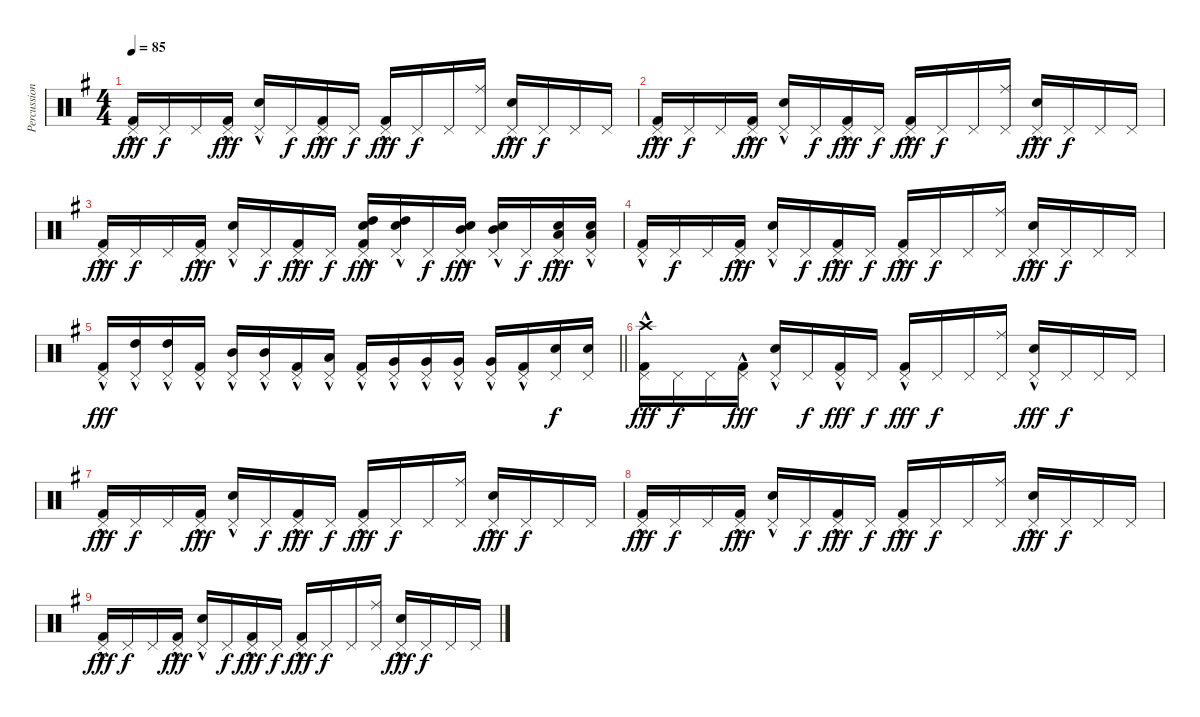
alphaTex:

\track ("Percussion" "Percussion") {instrument percussion}
\staff {score}
\articulation defaults
\ts (4 4)
\tempo 85
\clef neutral
\ks g
("Pedal Hi-Hat (hit)" "Kick (hit) 2"{hac}).16{dy fff} "Pedal Hi-Hat (hit)".16{dy f} "Pedal Hi-Hat (hit)".16 ("Pedal Hi-Hat (hit)" "Kick (hit) 2"{hac}).16{dy fff} ("Pedal Hi-Hat (hit)" "Snare (hit) 2"{hac}).16 "Pedal Hi-Hat (hit)".16{dy f} ("Pedal Hi-Hat (hit)" "Kick (hit) 2"{hac}).16{dy fff} "Pedal Hi-Hat (hit)".16{dy f} ("Pedal Hi-Hat (hit)" "Kick (hit) 2"{hac}).16{dy fff} "Pedal Hi-Hat (hit)".16{dy f} "Pedal Hi-Hat (hit)".16 ("Pedal Hi-Hat (hit)" "Ride (middle)").16 ("Pedal Hi-Hat (hit)" "Snare (hit) 2"{hac}).16{dy fff} "Pedal Hi-Hat (hit)".16{dy f} "Pedal Hi-Hat (hit)".16 "Pedal Hi-Hat (hit)".16 |
("Pedal Hi-Hat (hit)" "Kick (hit) 2"{hac}).16{dy fff} "Pedal Hi-Hat (hit)".16{dy f} "Pedal Hi-Hat (hit)".16 ("Pedal Hi-Hat (hit)" "Kick (hit) 2"{hac}).16{dy fff} ("Pedal Hi-Hat (hit)" "Snare (hit) 2"{hac}).16 "Pedal Hi-Hat (hit)".16{dy f} ("Pedal Hi-Hat (hit)" "Kick (hit) 2"{hac}).16{dy fff} "Pedal Hi-Hat (hit)".16{dy f} ("Pedal Hi-Hat (hit)" "Kick (hit) 2"{hac}).16{dy fff} "Pedal Hi-Hat (hit)".16{dy f} "Pedal Hi-Hat (hit)".16 ("Pedal Hi-Hat (hit)" "Ride (middle)").16 ("Pedal Hi-Hat (hit)" "Snare (hit) 2"{hac}).16{dy fff} "Pedal Hi-Hat (hit)".16{dy f} "Pedal Hi-Hat (hit)".16 "Pedal Hi-Hat (hit)".16 |
("Pedal Hi-Hat (hit)" "Kick (hit) 2"{hac}).16{dy fff} "Pedal Hi-Hat (hit)".16{dy f} "Pedal Hi-Hat (hit)".16 ("Pedal Hi-Hat (hit)" "Kick (hit) 2"{hac}).16{dy fff} ("Pedal Hi-Hat (hit)" "Snare (hit) 2"{hac}).16 "Pedal Hi-Hat (hit)".16{dy f} ("Pedal Hi-Hat (hit)" "Kick (hit) 2"{hac}).16{dy fff} "Pedal Hi-Hat (hit)".16{dy f} ("Pedal Hi-Hat (hit)" "High Tom (hit)"{hac} "Electric Snare (hit)" "Kick (hit) 2"{hac}).16{dy fff} ("Pedal Hi-Hat (hit)" "High Tom (hit)"{hac} "Electric Snare (hit)").16 "Pedal Hi-Hat (hit)".16{dy f} ("Pedal Hi-Hat (hit)" "Mid Tom (hit)"{hac} "Electric Snare (hit)").16{dy fff} ("Pedal Hi-Hat (hit)" "Mid Tom (hit)"{hac} "Electric Snare (hit)").16 "Pedal Hi-Hat (hit)".16{dy f} ("Pedal Hi-Hat (hit)" "Low Tom (hit)"{hac} "Electric Snare (hit)").16{dy fff} ("Pedal Hi-Hat (hit)" "Low Tom (hit)"{hac} "Electric Snare (hit)").16 |
("Pedal Hi-Hat (hit)" "Kick (hit) 2"{hac}).16 "Pedal Hi-Hat (hit)".16{dy f} "Pedal Hi-Hat (hit)".16 ("Pedal Hi-Hat (hit)" "Kick (hit) 2"{hac}).16{dy fff} ("Pedal Hi-Hat (hit)" "Snare (hit) 2"{hac}).16 "Pedal Hi-Hat (hit)".16{dy f} ("Pedal Hi-Hat (hit)" "Kick (hit) 2"{hac}).16{dy fff} "Pedal Hi-Hat (hit)".16{dy f} ("Pedal Hi-Hat (hit)" "Kick (hit) 2"{hac}).16{dy fff} "Pedal Hi-Hat (hit)".16{dy f} "Pedal Hi-Hat (hit)".16 ("Pedal Hi-Hat (hit)" "Ride (middle)").16 ("Pedal Hi-Hat (hit)" "Snare (hit) 2"{hac}).16{dy fff} "Pedal Hi-Hat (hit)".16{dy f} "Pedal Hi-Hat (hit)".16 "Pedal Hi-Hat (hit)".16 |
\barLineRight lightlight
("Pedal Hi-Hat (hit)" "Kick (hit) 2"{hac}).16{dy fff} ("Pedal Hi-Hat (hit)" "High Tom (hit)"{hac}).16 ("Pedal Hi-Hat (hit)" "High Tom (hit)"{hac}).16 ("Pedal Hi-Hat (hit)" "Kick (hit) 2"{hac}).16 ("Pedal Hi-Hat (hit)" "Mid Tom (hit)"{hac}).16 ("Pedal Hi-Hat (hit)" "Mid Tom (hit)"{hac}).16 ("Pedal Hi-Hat (hit)" "Kick (hit) 2"{hac}).16 ("Pedal Hi-Hat (hit)" "Low Tom (hit)"{hac}).16 ("Pedal Hi-Hat (hit)" "Kick (hit) 2"{hac}).16 ("Pedal Hi-Hat (hit)" "Very Low Tom (hit)"{hac}).16 ("Pedal Hi-Hat (hit)" "Very Low Tom (hit)"{hac}).16 ("Pedal Hi-Hat (hit)" "Very Low Tom (hit)"{hac}).16 ("Pedal Hi-Hat (hit)" "Very Low Tom (hit)"{hac}).16 ("Pedal Hi-Hat (hit)" "Kick (hit) 2"{hac}).16 ("Pedal Hi-Hat (hit)" "Snare (hit) 2").16{dy f} ("Pedal Hi-Hat (hit)" "Snare (hit) 2").16 |
("Pedal Hi-Hat (hit)" "Crash high (hit)" "Kick (hit) 2"{hac}).16{dy fff} "Pedal Hi-Hat (hit)".16{dy f} "Pedal Hi-Hat (hit)".16 ("Pedal Hi-Hat (hit)" "Kick (hit) 2"{hac}).16{dy fff} ("Pedal Hi-Hat (hit)" "Snare (hit) 2"{hac}).16 "Pedal Hi-Hat (hit)".16{dy f} ("Pedal Hi-Hat (hit)" "Kick (hit) 2"{hac}).16{dy fff} "Pedal Hi-Hat (hit)".16{dy f} ("Pedal Hi-Hat (hit)" "Kick (hit) 2"{hac}).16{dy fff} "Pedal Hi-Hat (hit)".16{dy f} "Pedal Hi-Hat (hit)".16 ("Pedal Hi-Hat (hit)" "Ride (middle)").16 ("Pedal Hi-Hat (hit)" "Snare (hit) 2"{hac}).16{dy fff} "Pedal Hi-Hat (hit)".16{dy f} "Pedal Hi-Hat (hit)".16 "Pedal Hi-Hat (hit)".16 |
("Pedal Hi-Hat (hit)" "Kick (hit) 2"{hac}).16{dy fff} "Pedal Hi-Hat (hit)".16{dy f} "Pedal Hi-Hat (hit)".16 ("Pedal Hi-Hat (hit)" "Kick (hit) 2"{hac}).16{dy fff} ("Pedal Hi-Hat (hit)" "Snare (hit) 2"{hac}).16 "Pedal Hi-Hat (hit)".16{dy f} ("Pedal Hi-Hat (hit)" "Kick (hit) 2"{hac}).16{dy fff} "Pedal Hi-Hat (hit)".16{dy f} ("Pedal Hi-Hat (hit)" "Kick (hit) 2"{hac}).16{dy fff} "Pedal Hi-Hat (hit)".16{dy f} "Pedal Hi-Hat (hit)".16 ("Pedal Hi-Hat (hit)" "Ride (middle)").16 ("Pedal Hi-Hat (hit)" "Snare (hit) 2"{hac}).16{dy fff} "Pedal Hi-Hat (hit)".16{dy f} "Pedal Hi-Hat (hit)".16 "Pedal Hi-Hat (hit)".16 |
("Pedal Hi-Hat (hit)" "Kick (hit) 2"{hac}).16{dy fff} "Pedal Hi-Hat (hit)".16{dy f} "Pedal Hi-Hat (hit)".16 ("Pedal Hi-Hat (hit)" "Kick (hit) 2"{hac}).16{dy fff} ("Pedal Hi-Hat (hit)" "Snare (hit) 2"{hac}).16 "Pedal Hi-Hat (hit)".16{dy f} ("Pedal Hi-Hat (hit)" "Kick (hit) 2"{hac}).16{dy fff} "Pedal Hi-Hat (hit)".16{dy f} ("Pedal Hi-Hat (hit)" "Kick (hit) 2"{hac}).16{dy fff} "Pedal Hi-Hat (hit)".16{dy f} "Pedal Hi-Hat (hit)".16 ("Pedal Hi-Hat (hit)" "Ride (middle)").16 ("Pedal Hi-Hat (hit)" "Snare (hit) 2"{hac}).16{dy fff} "Pedal Hi-Hat (hit)".16{dy f} "Pedal Hi-Hat (hit)".16 "Pedal Hi-Hat (hit)".16 |
("Pedal Hi-Hat (hit)" "Kick (hit) 2"{hac}).16{dy fff} "Pedal Hi-Hat (hit)".16{dy f} "Pedal Hi-Hat (hit)".16 ("Pedal Hi-Hat (hit)" "Kick (hit) 2"{hac}).16{dy fff} ("Pedal Hi-Hat (hit)" "Snare (hit) 2"{hac}).16 "Pedal Hi-Hat (hit)".16{dy f} ("Pedal Hi-Hat (hit)" "Kick (hit) 2"{hac}).16{dy fff} "Pedal Hi-Hat (hit)".16{dy f} ("Pedal Hi-Hat (hit)" "Kick (hit) 2"{hac}).16{dy fff} "Pedal Hi-Hat (hit)".16{dy f} "Pedal Hi-Hat (hit)".16 ("Pedal Hi-Hat (hit)" "Ride (middle)").16 ("Pedal Hi-Hat (hit)" "Snare (hit) 2"{hac}).16{dy fff} "Pedal Hi-Hat (hit)".16{dy f} "Pedal Hi-Hat (hit)".16 "Pedal Hi-Hat (hit)".16
